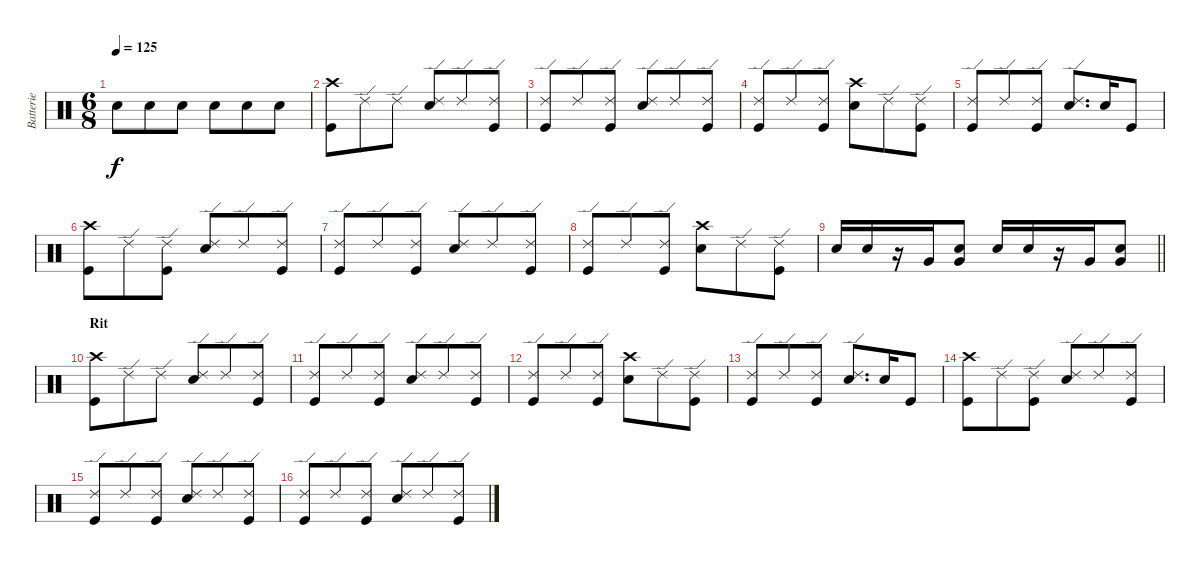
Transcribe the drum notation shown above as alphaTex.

\track ("Batterie" "Batterie") {instrument percussion}
\staff {score}
\articulation defaults
\ts (6 8)
\tempo 125
\clef neutral
\ks c "Snare (hit) 2".8{dy f} "Snare (hit) 2".8 "Snare (hit) 2".8 "Snare (hit) 2".8 "Snare (hit) 2".8 "Snare (hit) 2".8
|
("Crash high (hit)" "Kick (hit)").8 "Ride (edge) 2".8 "Ride (edge) 2".8 ("Ride (edge) 2" "Snare (hit) 2").8 "Ride (edge) 2".8 ("Ride (edge) 2" "Kick (hit)").8 |
("Ride (edge) 2" "Kick (hit)").8 "Ride (edge) 2".8 ("Ride (edge) 2" "Kick (hit)").8 ("Ride (edge) 2" "Snare (hit) 2").8 "Ride (edge) 2".8 ("Ride (edge) 2" "Kick (hit)").8 |
("Ride (edge) 2" "Kick (hit)").8 "Ride (edge) 2".8 ("Ride (edge) 2" "Kick (hit)").8 ("Crash high (hit)" "Snare (hit) 2").8 "Ride (edge) 2".8 ("Ride (edge) 2" "Kick (hit)").8 |
("Ride (edge) 2" "Kick (hit)").8 "Ride (edge) 2".8 ("Ride (edge) 2" "Kick (hit)").8 ("Ride (edge) 2" "Snare (hit) 2").8{d} "Snare (hit) 2".16 "Kick (hit)".8 |
("Crash high (hit)" "Kick (hit)").8 "Ride (edge) 2".8 ("Ride (edge) 2" "Kick (hit)").8 ("Ride (edge) 2" "Snare (hit) 2").8 "Ride (edge) 2".8 ("Ride (edge) 2" "Kick (hit)").8 |
("Ride (edge) 2" "Kick (hit)").8 "Ride (edge) 2".8 ("Ride (edge) 2" "Kick (hit)").8 ("Ride (edge) 2" "Snare (hit) 2").8 "Ride (edge) 2".8 ("Ride (edge) 2" "Kick (hit)").8 |
("Ride (edge) 2" "Kick (hit)").8 "Ride (edge) 2".8 ("Ride (edge) 2" "Kick (hit)").8 ("Crash high (hit)" "Snare (hit) 2").8 "Ride (edge) 2".8 ("Ride (edge) 2" "Kick (hit)").8 |
\barLineRight lightlight "Snare (hit) 2".16 "Snare (hit) 2".16
r.16 "Very Low Tom (hit)".16 ("Snare (hit) 2" "Very Low Tom (hit)").8 "Snare (hit) 2".16 "Snare (hit) 2".16 r.16 "Very Low Tom (hit)".16 ("Snare (hit) 2" "Very Low Tom (hit)").8 |
\section ("" "Rit")
("Crash high (hit)" "Kick (hit)").8 "Ride (edge) 2".8 "Ride (edge) 2".8 ("Ride (edge) 2" "Snare (hit) 2").8 "Ride (edge) 2".8 ("Ride (edge) 2" "Kick (hit)").8 |
("Ride (edge) 2" "Kick (hit)").8 "Ride (edge) 2".8 ("Ride (edge) 2" "Kick (hit)").8 ("Ride (edge) 2" "Snare (hit) 2").8 "Ride (edge) 2".8 ("Ride (edge) 2" "Kick (hit)").8 |
("Ride (edge) 2" "Kick (hit)").8 "Ride (edge) 2".8 ("Ride (edge) 2" "Kick (hit)").8 ("Crash high (hit)" "Snare (hit) 2").8 "Ride (edge) 2".8 ("Ride (edge) 2" "Kick (hit)").8 |
("Ride (edge) 2" "Kick (hit)").8 "Ride (edge) 2".8 ("Ride (edge) 2" "Kick (hit)").8 ("Ride (edge) 2" "Snare (hit) 2").8{d} "Snare (hit) 2".16 "Kick (hit)".8 |
("Crash high (hit)" "Kick (hit)").8 "Ride (edge) 2".8 ("Ride (edge) 2" "Kick (hit)").8 ("Ride (edge) 2" "Snare (hit) 2").8 "Ride (edge) 2".8 ("Ride (edge) 2" "Kick (hit)").8 |
("Ride (edge) 2" "Kick (hit)").8 "Ride (edge) 2".8 ("Ride (edge) 2" "Kick (hit)").8 ("Ride (edge) 2" "Snare (hit) 2").8 "Ride (edge) 2".8 ("Ride (edge) 2" "Kick (hit)").8 |
("Ride (edge) 2" "Kick (hit)").8 "Ride (edge) 2".8 ("Ride (edge) 2" "Kick (hit)").8 ("Ride (edge) 2" "Snare (hit) 2").8 "Ride (edge) 2".8 ("Ride (edge) 2" "Kick (hit)").8
